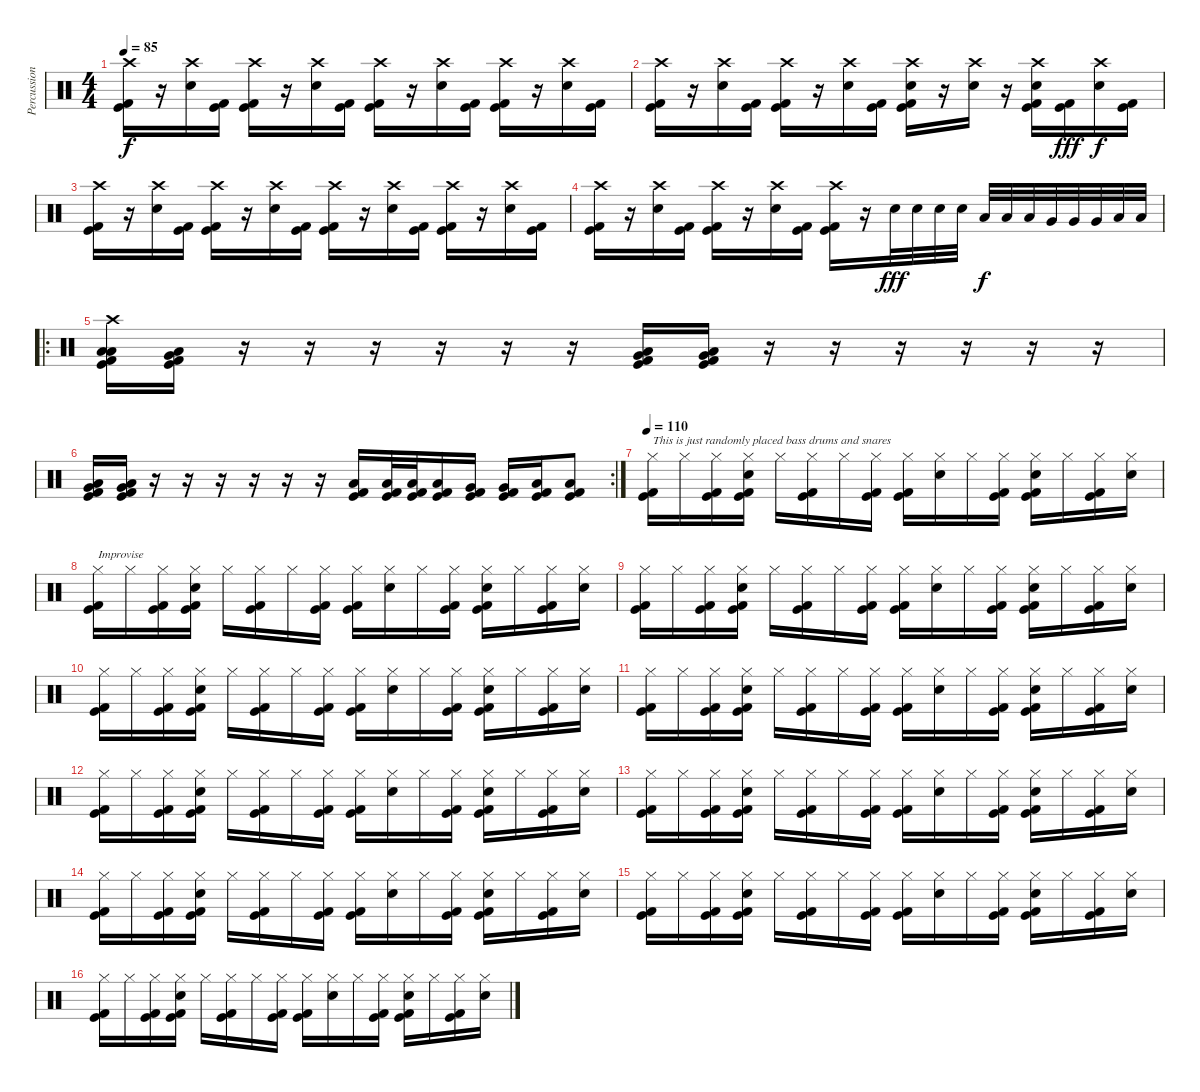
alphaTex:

\track ("Percussion" "Percussion") {instrument percussion}
\staff {score}
\articulation defaults
\ts (4 4)
\tempo 85
\clef neutral
\ks c
("Crash high (hit)" "Kick (hit) 2" "Kick (hit)").16{dy f} r.16 ("Crash high (hit)" "Electric Snare (hit)").16 ("Kick (hit) 2" "Kick (hit)").16 ("Crash high (hit)" "Kick (hit) 2" "Kick (hit)").16 r.16 ("Crash high (hit)" "Electric Snare (hit)").16 ("Kick (hit) 2" "Kick (hit)").16 ("Crash high (hit)" "Kick (hit) 2" "Kick (hit)").16 r.16 ("Crash high (hit)" "Electric Snare (hit)").16 ("Kick (hit) 2" "Kick (hit)").16 ("Crash high (hit)" "Kick (hit) 2" "Kick (hit)").16 r.16 ("Crash high (hit)" "Electric Snare (hit)").16 ("Kick (hit) 2" "Kick (hit)").16 |
("Crash high (hit)" "Kick (hit) 2" "Kick (hit)").16 r.16 ("Crash high (hit)" "Electric Snare (hit)").16 ("Kick (hit) 2" "Kick (hit)").16 ("Crash high (hit)" "Kick (hit) 2" "Kick (hit)").16 r.16 ("Crash high (hit)" "Electric Snare (hit)").16 ("Kick (hit) 2" "Kick (hit)").16 ("Crash high (hit)" "Electric Snare (hit)" "Kick (hit) 2" "Kick (hit)").16 r.16 ("Crash high (hit)" "Electric Snare (hit)").16 r.16 ("Crash high (hit)" "Electric Snare (hit)" "Kick (hit) 2" "Kick (hit)").16 ("Kick (hit) 2" "Kick (hit)").16{dy fff} ("Crash high (hit)" "Electric Snare (hit)").16{dy f} ("Kick (hit) 2" "Kick (hit)").16 |
("Crash high (hit)" "Kick (hit) 2" "Kick (hit)").16 r.16 ("Crash high (hit)" "Electric Snare (hit)").16 ("Kick (hit) 2" "Kick (hit)").16 ("Crash high (hit)" "Kick (hit) 2" "Kick (hit)").16 r.16 ("Crash high (hit)" "Electric Snare (hit)").16 ("Kick (hit) 2" "Kick (hit)").16 ("Crash high (hit)" "Kick (hit) 2" "Kick (hit)").16 r.16 ("Crash high (hit)" "Electric Snare (hit)").16 ("Kick (hit) 2" "Kick (hit)").16 ("Crash high (hit)" "Kick (hit) 2" "Kick (hit)").16 r.16 ("Crash high (hit)" "Electric Snare (hit)").16 ("Kick (hit) 2" "Kick (hit)").16 |
("Crash high (hit)" "Kick (hit) 2" "Kick (hit)").16 r.16 ("Crash high (hit)" "Electric Snare (hit)").16 ("Kick (hit) 2" "Kick (hit)").16 ("Crash high (hit)" "Kick (hit) 2" "Kick (hit)").16 r.16 ("Crash high (hit)" "Electric Snare (hit)").16 ("Kick (hit) 2" "Kick (hit)").16 ("Crash high (hit)" "Kick (hit) 2" "Kick (hit)").16 r.16 "Electric Snare (hit)".32{dy fff} "Electric Snare (hit)".32 "Electric Snare (hit)".32 "Electric Snare (hit)".32 "Low Tom (hit)".32{dy f} "Low Tom (hit)".32 "Low Tom (hit)".32 "Very Low Tom (hit)".32 "Very Low Tom (hit)".32 "Very Low Tom (hit)".32 "Low Floor Tom (hit)".32 "Low Floor Tom (hit)".32 |
\ro
("Crash high (hit)" "Low Floor Tom (hit)" "Low Floor Tom (hit)" "Kick (hit)" "Kick (hit) 2").16 ("Low Floor Tom (hit)" "Very Low Tom (hit)" "Kick (hit)" "Kick (hit) 2").16 r.16 r.16 r.16 r.16 r.16 r.16 ("Low Floor Tom (hit)" "Very Low Tom (hit)" "Kick (hit)" "Kick (hit) 2").16 ("Low Floor Tom (hit)" "Very Low Tom (hit)" "Kick (hit)" "Kick (hit) 2").16 r.16 r.16 r.16 r.16 r.16 r.16 |
\rc 2
("Low Floor Tom (hit)" "Very Low Tom (hit)" "Kick (hit)" "Kick (hit) 2").16 ("Low Floor Tom (hit)" "Very Low Tom (hit)" "Kick (hit)" "Kick (hit) 2").16 r.16 r.16 r.16 r.16 r.16 r.16 ("Low Tom (hit)" "Kick (hit)" "Kick (hit) 2").16 ("Low Tom (hit)" "Kick (hit)" "Kick (hit) 2").32 ("Low Tom (hit)" "Kick (hit)" "Kick (hit) 2").32 ("Low Tom (hit)" "Kick (hit)" "Kick (hit) 2").16 ("Very Low Tom (hit)" "Kick (hit)" "Kick (hit) 2").16 ("Very Low Tom (hit)" "Kick (hit)" "Kick (hit) 2").16 ("Low Floor Tom (hit)" "Kick (hit)" "Kick (hit) 2").16 ("Low Floor Tom (hit)" "Kick (hit)" "Kick (hit) 2").8 |
\tempo 110
("Hi-Hat (closed)" "Kick (hit)" "Kick (hit) 2").16{txt "This is just randomly placed bass drums and snares"} "Hi-Hat (closed)".16 ("Hi-Hat (closed)" "Kick (hit)" "Kick (hit) 2").16 ("Hi-Hat (closed)" "Electric Snare (hit)" "Kick (hit)" "Kick (hit) 2").16 "Hi-Hat (closed)".16 ("Hi-Hat (closed)" "Kick (hit)" "Kick (hit) 2").16 "Hi-Hat (closed)".16 ("Hi-Hat (closed)" "Kick (hit)" "Kick (hit) 2").16 ("Hi-Hat (closed)" "Kick (hit)" "Kick (hit) 2").16 ("Hi-Hat (closed)" "Electric Snare (hit)").16 "Hi-Hat (closed)".16 ("Hi-Hat (closed)" "Kick (hit)" "Kick (hit) 2").16 ("Hi-Hat (closed)" "Electric Snare (hit)" "Kick (hit)" "Kick (hit) 2").16 "Hi-Hat (closed)".16 ("Hi-Hat (closed)" "Kick (hit)" "Kick (hit) 2").16 ("Hi-Hat (closed)" "Electric Snare (hit)").16 |
("Hi-Hat (closed)" "Kick (hit)" "Kick (hit) 2").16{txt "Improvise"} "Hi-Hat (closed)".16 ("Hi-Hat (closed)" "Kick (hit)" "Kick (hit) 2").16 ("Hi-Hat (closed)" "Electric Snare (hit)" "Kick (hit)" "Kick (hit) 2").16 "Hi-Hat (closed)".16 ("Hi-Hat (closed)" "Kick (hit)" "Kick (hit) 2").16 "Hi-Hat (closed)".16 ("Hi-Hat (closed)" "Kick (hit)" "Kick (hit) 2").16 ("Hi-Hat (closed)" "Kick (hit)" "Kick (hit) 2").16 ("Hi-Hat (closed)" "Electric Snare (hit)").16 "Hi-Hat (closed)".16 ("Hi-Hat (closed)" "Kick (hit)" "Kick (hit) 2").16 ("Hi-Hat (closed)" "Electric Snare (hit)" "Kick (hit)" "Kick (hit) 2").16 "Hi-Hat (closed)".16 ("Hi-Hat (closed)" "Kick (hit)" "Kick (hit) 2").16 ("Hi-Hat (closed)" "Electric Snare (hit)").16 |
("Hi-Hat (closed)" "Kick (hit)" "Kick (hit) 2").16 "Hi-Hat (closed)".16 ("Hi-Hat (closed)" "Kick (hit)" "Kick (hit) 2").16 ("Hi-Hat (closed)" "Electric Snare (hit)" "Kick (hit)" "Kick (hit) 2").16 "Hi-Hat (closed)".16 ("Hi-Hat (closed)" "Kick (hit)" "Kick (hit) 2").16 "Hi-Hat (closed)".16 ("Hi-Hat (closed)" "Kick (hit)" "Kick (hit) 2").16 ("Hi-Hat (closed)" "Kick (hit)" "Kick (hit) 2").16 ("Hi-Hat (closed)" "Electric Snare (hit)").16 "Hi-Hat (closed)".16 ("Hi-Hat (closed)" "Kick (hit)" "Kick (hit) 2").16 ("Hi-Hat (closed)" "Electric Snare (hit)" "Kick (hit)" "Kick (hit) 2").16 "Hi-Hat (closed)".16 ("Hi-Hat (closed)" "Kick (hit)" "Kick (hit) 2").16 ("Hi-Hat (closed)" "Electric Snare (hit)").16 |
("Hi-Hat (closed)" "Kick (hit)" "Kick (hit) 2").16 "Hi-Hat (closed)".16 ("Hi-Hat (closed)" "Kick (hit)" "Kick (hit) 2").16 ("Hi-Hat (closed)" "Electric Snare (hit)" "Kick (hit)" "Kick (hit) 2").16 "Hi-Hat (closed)".16 ("Hi-Hat (closed)" "Kick (hit)" "Kick (hit) 2").16 "Hi-Hat (closed)".16 ("Hi-Hat (closed)" "Kick (hit)" "Kick (hit) 2").16 ("Hi-Hat (closed)" "Kick (hit)" "Kick (hit) 2").16 ("Hi-Hat (closed)" "Electric Snare (hit)").16 "Hi-Hat (closed)".16 ("Hi-Hat (closed)" "Kick (hit)" "Kick (hit) 2").16 ("Hi-Hat (closed)" "Electric Snare (hit)" "Kick (hit)" "Kick (hit) 2").16 "Hi-Hat (closed)".16 ("Hi-Hat (closed)" "Kick (hit)" "Kick (hit) 2").16 ("Hi-Hat (closed)" "Electric Snare (hit)").16 |
("Hi-Hat (closed)" "Kick (hit)" "Kick (hit) 2").16 "Hi-Hat (closed)".16 ("Hi-Hat (closed)" "Kick (hit)" "Kick (hit) 2").16 ("Hi-Hat (closed)" "Electric Snare (hit)" "Kick (hit)" "Kick (hit) 2").16 "Hi-Hat (closed)".16 ("Hi-Hat (closed)" "Kick (hit)" "Kick (hit) 2").16 "Hi-Hat (closed)".16 ("Hi-Hat (closed)" "Kick (hit)" "Kick (hit) 2").16 ("Hi-Hat (closed)" "Kick (hit)" "Kick (hit) 2").16 ("Hi-Hat (closed)" "Electric Snare (hit)").16 "Hi-Hat (closed)".16 ("Hi-Hat (closed)" "Kick (hit)" "Kick (hit) 2").16 ("Hi-Hat (closed)" "Electric Snare (hit)" "Kick (hit)" "Kick (hit) 2").16 "Hi-Hat (closed)".16 ("Hi-Hat (closed)" "Kick (hit)" "Kick (hit) 2").16 ("Hi-Hat (closed)" "Electric Snare (hit)").16 |
("Hi-Hat (closed)" "Kick (hit)" "Kick (hit) 2").16 "Hi-Hat (closed)".16 ("Hi-Hat (closed)" "Kick (hit)" "Kick (hit) 2").16 ("Hi-Hat (closed)" "Electric Snare (hit)" "Kick (hit)" "Kick (hit) 2").16 "Hi-Hat (closed)".16 ("Hi-Hat (closed)" "Kick (hit)" "Kick (hit) 2").16 "Hi-Hat (closed)".16 ("Hi-Hat (closed)" "Kick (hit)" "Kick (hit) 2").16 ("Hi-Hat (closed)" "Kick (hit)" "Kick (hit) 2").16 ("Hi-Hat (closed)" "Electric Snare (hit)").16 "Hi-Hat (closed)".16 ("Hi-Hat (closed)" "Kick (hit)" "Kick (hit) 2").16 ("Hi-Hat (closed)" "Electric Snare (hit)" "Kick (hit)" "Kick (hit) 2").16 "Hi-Hat (closed)".16 ("Hi-Hat (closed)" "Kick (hit)" "Kick (hit) 2").16 ("Hi-Hat (closed)" "Electric Snare (hit)").16 |
("Hi-Hat (closed)" "Kick (hit)" "Kick (hit) 2").16 "Hi-Hat (closed)".16 ("Hi-Hat (closed)" "Kick (hit)" "Kick (hit) 2").16 ("Hi-Hat (closed)" "Electric Snare (hit)" "Kick (hit)" "Kick (hit) 2").16 "Hi-Hat (closed)".16 ("Hi-Hat (closed)" "Kick (hit)" "Kick (hit) 2").16 "Hi-Hat (closed)".16 ("Hi-Hat (closed)" "Kick (hit)" "Kick (hit) 2").16 ("Hi-Hat (closed)" "Kick (hit)" "Kick (hit) 2").16 ("Hi-Hat (closed)" "Electric Snare (hit)").16 "Hi-Hat (closed)".16 ("Hi-Hat (closed)" "Kick (hit)" "Kick (hit) 2").16 ("Hi-Hat (closed)" "Electric Snare (hit)" "Kick (hit)" "Kick (hit) 2").16 "Hi-Hat (closed)".16 ("Hi-Hat (closed)" "Kick (hit)" "Kick (hit) 2").16 ("Hi-Hat (closed)" "Electric Snare (hit)").16 |
("Hi-Hat (closed)" "Kick (hit)" "Kick (hit) 2").16 "Hi-Hat (closed)".16 ("Hi-Hat (closed)" "Kick (hit)" "Kick (hit) 2").16 ("Hi-Hat (closed)" "Electric Snare (hit)" "Kick (hit)" "Kick (hit) 2").16 "Hi-Hat (closed)".16 ("Hi-Hat (closed)" "Kick (hit)" "Kick (hit) 2").16 "Hi-Hat (closed)".16 ("Hi-Hat (closed)" "Kick (hit)" "Kick (hit) 2").16 ("Hi-Hat (closed)" "Kick (hit)" "Kick (hit) 2").16 ("Hi-Hat (closed)" "Electric Snare (hit)").16 "Hi-Hat (closed)".16 ("Hi-Hat (closed)" "Kick (hit)" "Kick (hit) 2").16 ("Hi-Hat (closed)" "Electric Snare (hit)" "Kick (hit)" "Kick (hit) 2").16 "Hi-Hat (closed)".16 ("Hi-Hat (closed)" "Kick (hit)" "Kick (hit) 2").16 ("Hi-Hat (closed)" "Electric Snare (hit)").16 |
("Hi-Hat (closed)" "Kick (hit)" "Kick (hit) 2").16 "Hi-Hat (closed)".16 ("Hi-Hat (closed)" "Kick (hit)" "Kick (hit) 2").16 ("Hi-Hat (closed)" "Electric Snare (hit)" "Kick (hit)" "Kick (hit) 2").16 "Hi-Hat (closed)".16 ("Hi-Hat (closed)" "Kick (hit)" "Kick (hit) 2").16 "Hi-Hat (closed)".16 ("Hi-Hat (closed)" "Kick (hit)" "Kick (hit) 2").16 ("Hi-Hat (closed)" "Kick (hit)" "Kick (hit) 2").16 ("Hi-Hat (closed)" "Electric Snare (hit)").16 "Hi-Hat (closed)".16 ("Hi-Hat (closed)" "Kick (hit)" "Kick (hit) 2").16 ("Hi-Hat (closed)" "Electric Snare (hit)" "Kick (hit)" "Kick (hit) 2").16 "Hi-Hat (closed)".16 ("Hi-Hat (closed)" "Kick (hit)" "Kick (hit) 2").16 ("Hi-Hat (closed)" "Electric Snare (hit)").16 |
("Hi-Hat (closed)" "Kick (hit)" "Kick (hit) 2").16{volume 16} "Hi-Hat (closed)".16 ("Hi-Hat (closed)" "Kick (hit)" "Kick (hit) 2").16 ("Hi-Hat (closed)" "Electric Snare (hit)" "Kick (hit)" "Kick (hit) 2").16 "Hi-Hat (closed)".16 ("Hi-Hat (closed)" "Kick (hit)" "Kick (hit) 2").16 "Hi-Hat (closed)".16 ("Hi-Hat (closed)" "Kick (hit)" "Kick (hit) 2").16 ("Hi-Hat (closed)" "Kick (hit)" "Kick (hit) 2").16 ("Hi-Hat (closed)" "Electric Snare (hit)").16 "Hi-Hat (closed)".16 ("Hi-Hat (closed)" "Kick (hit)" "Kick (hit) 2").16 ("Hi-Hat (closed)" "Electric Snare (hit)" "Kick (hit)" "Kick (hit) 2").16 "Hi-Hat (closed)".16 ("Hi-Hat (closed)" "Kick (hit)" "Kick (hit) 2").16 ("Hi-Hat (closed)" "Electric Snare (hit)").16
